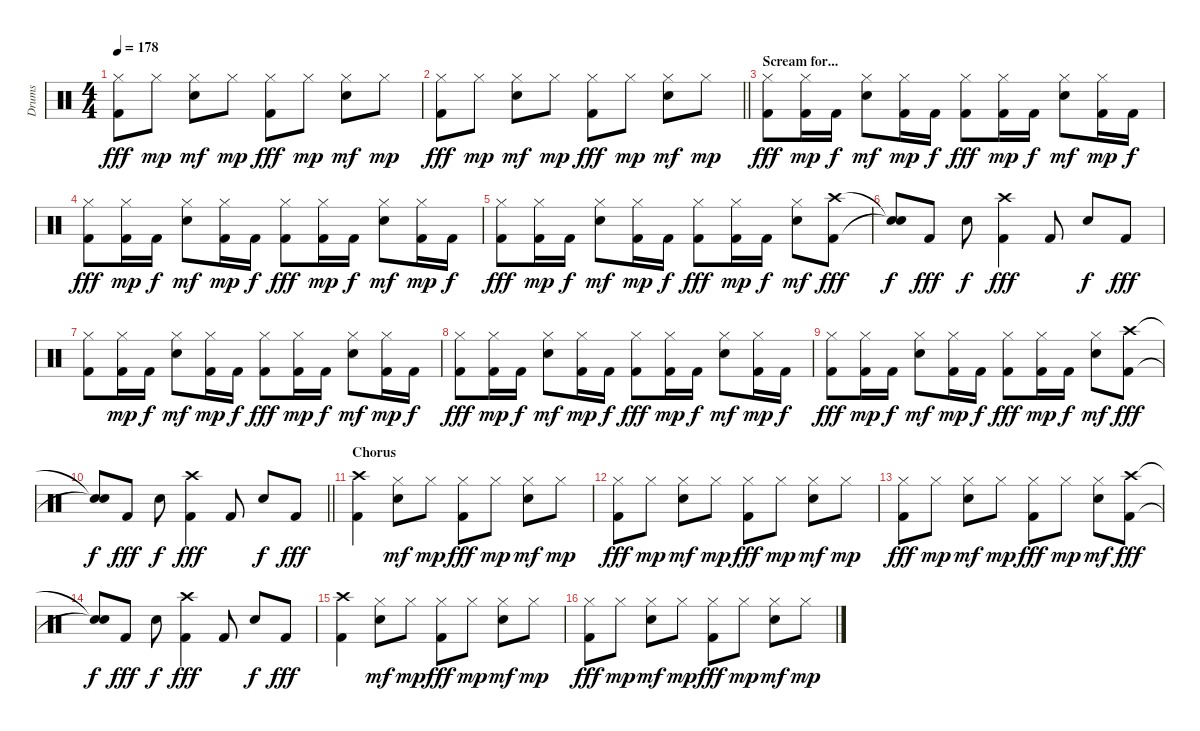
\track ("Drums" "Drums") {instrument percussion}
\staff {score}
\articulation defaults
\ts (4 4)
\tempo 178
\clef neutral
\ks c
("Hi-Hat (closed)" "Kick (hit) 2").8{dy fff} "Hi-Hat (closed)".8{dy mp} ("Hi-Hat (closed)" "Electric Snare (hit)").8{dy mf} "Hi-Hat (closed)".8{dy mp} ("Hi-Hat (closed)" "Kick (hit) 2").8{dy fff} "Hi-Hat (closed)".8{dy mp} ("Hi-Hat (closed)" "Electric Snare (hit)").8{dy mf} "Hi-Hat (closed)".8{dy mp} |
\barLineRight lightlight
("Hi-Hat (closed)" "Kick (hit) 2").8{dy fff} "Hi-Hat (closed)".8{dy mp} ("Hi-Hat (closed)" "Electric Snare (hit)").8{dy mf} "Hi-Hat (closed)".8{dy mp} ("Hi-Hat (closed)" "Kick (hit) 2").8{dy fff} "Hi-Hat (closed)".8{dy mp} ("Hi-Hat (closed)" "Electric Snare (hit)").8{dy mf} "Hi-Hat (closed)".8{dy mp} |
\section ("" "Scream for...")
("Hi-Hat (closed)" "Kick (hit) 2").8{dy fff} ("Hi-Hat (closed)" "Kick (hit) 2").16{dy mp} "Kick (hit) 2".16{dy f} ("Hi-Hat (closed)" "Electric Snare (hit)").8{dy mf} ("Hi-Hat (closed)" "Kick (hit) 2").16{dy mp} "Kick (hit) 2".16{dy f} ("Hi-Hat (closed)" "Kick (hit) 2").8{dy fff} ("Hi-Hat (closed)" "Kick (hit) 2").16{dy mp} "Kick (hit) 2".16{dy f} ("Hi-Hat (closed)" "Electric Snare (hit)").8{dy mf} ("Hi-Hat (closed)" "Kick (hit) 2").16{dy mp} "Kick (hit) 2".16{dy f} |
("Hi-Hat (closed)" "Kick (hit) 2").8{dy fff} ("Hi-Hat (closed)" "Kick (hit) 2").16{dy mp} "Kick (hit) 2".16{dy f} ("Hi-Hat (closed)" "Electric Snare (hit)").8{dy mf} ("Hi-Hat (closed)" "Kick (hit) 2").16{dy mp} "Kick (hit) 2".16{dy f} ("Hi-Hat (closed)" "Kick (hit) 2").8{dy fff} ("Hi-Hat (closed)" "Kick (hit) 2").16{dy mp} "Kick (hit) 2".16{dy f} ("Hi-Hat (closed)" "Electric Snare (hit)").8{dy mf} ("Hi-Hat (closed)" "Kick (hit) 2").16{dy mp} "Kick (hit) 2".16{dy f} |
("Hi-Hat (closed)" "Kick (hit) 2").8{dy fff} ("Hi-Hat (closed)" "Kick (hit) 2").16{dy mp} "Kick (hit) 2".16{dy f} ("Hi-Hat (closed)" "Electric Snare (hit)").8{dy mf} ("Hi-Hat (closed)" "Kick (hit) 2").16{dy mp} "Kick (hit) 2".16{dy f} ("Hi-Hat (closed)" "Kick (hit) 2").8{dy fff} ("Hi-Hat (closed)" "Kick (hit) 2").16{dy mp} "Kick (hit) 2".16{dy f} ("Hi-Hat (closed)" "Electric Snare (hit)").8{dy mf} ("Crash high (hit)" "Kick (hit) 2").8{dy fff} |
("Snare (hit)"{t} "Snare (hit)"{t}).8{dy f} "Kick (hit) 2".8{dy fff} "Electric Snare (hit)".8{dy f} ("Crash high (hit)" "Kick (hit) 2").4{dy fff} "Kick (hit) 2".8 "Electric Snare (hit)".8{dy f} "Kick (hit) 2".8{dy fff} |
("Hi-Hat (closed)" "Kick (hit) 2").8 ("Hi-Hat (closed)" "Kick (hit) 2").16{dy mp} "Kick (hit) 2".16{dy f} ("Hi-Hat (closed)" "Electric Snare (hit)").8{dy mf} ("Hi-Hat (closed)" "Kick (hit) 2").16{dy mp} "Kick (hit) 2".16{dy f} ("Hi-Hat (closed)" "Kick (hit) 2").8{dy fff} ("Hi-Hat (closed)" "Kick (hit) 2").16{dy mp} "Kick (hit) 2".16{dy f} ("Hi-Hat (closed)" "Electric Snare (hit)").8{dy mf} ("Hi-Hat (closed)" "Kick (hit) 2").16{dy mp} "Kick (hit) 2".16{dy f} |
("Hi-Hat (closed)" "Kick (hit) 2").8{dy fff} ("Hi-Hat (closed)" "Kick (hit) 2").16{dy mp} "Kick (hit) 2".16{dy f} ("Hi-Hat (closed)" "Electric Snare (hit)").8{dy mf} ("Hi-Hat (closed)" "Kick (hit) 2").16{dy mp} "Kick (hit) 2".16{dy f} ("Hi-Hat (closed)" "Kick (hit) 2").8{dy fff} ("Hi-Hat (closed)" "Kick (hit) 2").16{dy mp} "Kick (hit) 2".16{dy f} ("Hi-Hat (closed)" "Electric Snare (hit)").8{dy mf} ("Hi-Hat (closed)" "Kick (hit) 2").16{dy mp} "Kick (hit) 2".16{dy f} |
("Hi-Hat (closed)" "Kick (hit) 2").8{dy fff} ("Hi-Hat (closed)" "Kick (hit) 2").16{dy mp} "Kick (hit) 2".16{dy f} ("Hi-Hat (closed)" "Electric Snare (hit)").8{dy mf} ("Hi-Hat (closed)" "Kick (hit) 2").16{dy mp} "Kick (hit) 2".16{dy f} ("Hi-Hat (closed)" "Kick (hit) 2").8{dy fff} ("Hi-Hat (closed)" "Kick (hit) 2").16{dy mp} "Kick (hit) 2".16{dy f} ("Hi-Hat (closed)" "Electric Snare (hit)").8{dy mf} ("Crash high (hit)" "Kick (hit) 2").8{dy fff} |
\barLineRight lightlight
("Snare (hit)"{t} "Snare (hit)"{t}).8{dy f} "Kick (hit) 2".8{dy fff} "Electric Snare (hit)".8{dy f} ("Crash high (hit)" "Kick (hit) 2").4{dy fff} "Kick (hit) 2".8 "Electric Snare (hit)".8{dy f} "Kick (hit) 2".8{dy fff} |
\section ("" "Chorus")
("Crash high (hit)" "Kick (hit) 2").4 ("Hi-Hat (closed)" "Electric Snare (hit)").8{dy mf} "Hi-Hat (closed)".8{dy mp} ("Hi-Hat (closed)" "Kick (hit) 2").8{dy fff} "Hi-Hat (closed)".8{dy mp} ("Hi-Hat (closed)" "Electric Snare (hit)").8{dy mf} "Hi-Hat (closed)".8{dy mp} |
("Hi-Hat (closed)" "Kick (hit) 2").8{dy fff} "Hi-Hat (closed)".8{dy mp} ("Hi-Hat (closed)" "Electric Snare (hit)").8{dy mf} "Hi-Hat (closed)".8{dy mp} ("Hi-Hat (closed)" "Kick (hit) 2").8{dy fff} "Hi-Hat (closed)".8{dy mp} ("Hi-Hat (closed)" "Electric Snare (hit)").8{dy mf} "Hi-Hat (closed)".8{dy mp} |
("Hi-Hat (closed)" "Kick (hit) 2").8{dy fff} "Hi-Hat (closed)".8{dy mp} ("Hi-Hat (closed)" "Electric Snare (hit)").8{dy mf} "Hi-Hat (closed)".8{dy mp} ("Hi-Hat (closed)" "Kick (hit) 2").8{dy fff} "Hi-Hat (closed)".8{dy mp} ("Hi-Hat (closed)" "Electric Snare (hit)").8{dy mf} ("Crash high (hit)" "Kick (hit) 2").8{dy fff} |
("Snare (hit)"{t} "Snare (hit)"{t}).8{dy f} "Kick (hit) 2".8{dy fff} "Electric Snare (hit)".8{dy f} ("Crash high (hit)" "Kick (hit) 2").4{dy fff} "Kick (hit) 2".8 "Electric Snare (hit)".8{dy f} "Kick (hit) 2".8{dy fff} |
("Crash high (hit)" "Kick (hit) 2").4 ("Hi-Hat (closed)" "Electric Snare (hit)").8{dy mf} "Hi-Hat (closed)".8{dy mp} ("Hi-Hat (closed)" "Kick (hit) 2").8{dy fff} "Hi-Hat (closed)".8{dy mp} ("Hi-Hat (closed)" "Electric Snare (hit)").8{dy mf} "Hi-Hat (closed)".8{dy mp} |
("Hi-Hat (closed)" "Kick (hit) 2").8{dy fff} "Hi-Hat (closed)".8{dy mp} ("Hi-Hat (closed)" "Electric Snare (hit)").8{dy mf} "Hi-Hat (closed)".8{dy mp} ("Hi-Hat (closed)" "Kick (hit) 2").8{dy fff} "Hi-Hat (closed)".8{dy mp} ("Hi-Hat (closed)" "Electric Snare (hit)").8{dy mf} "Hi-Hat (closed)".8{dy mp}
